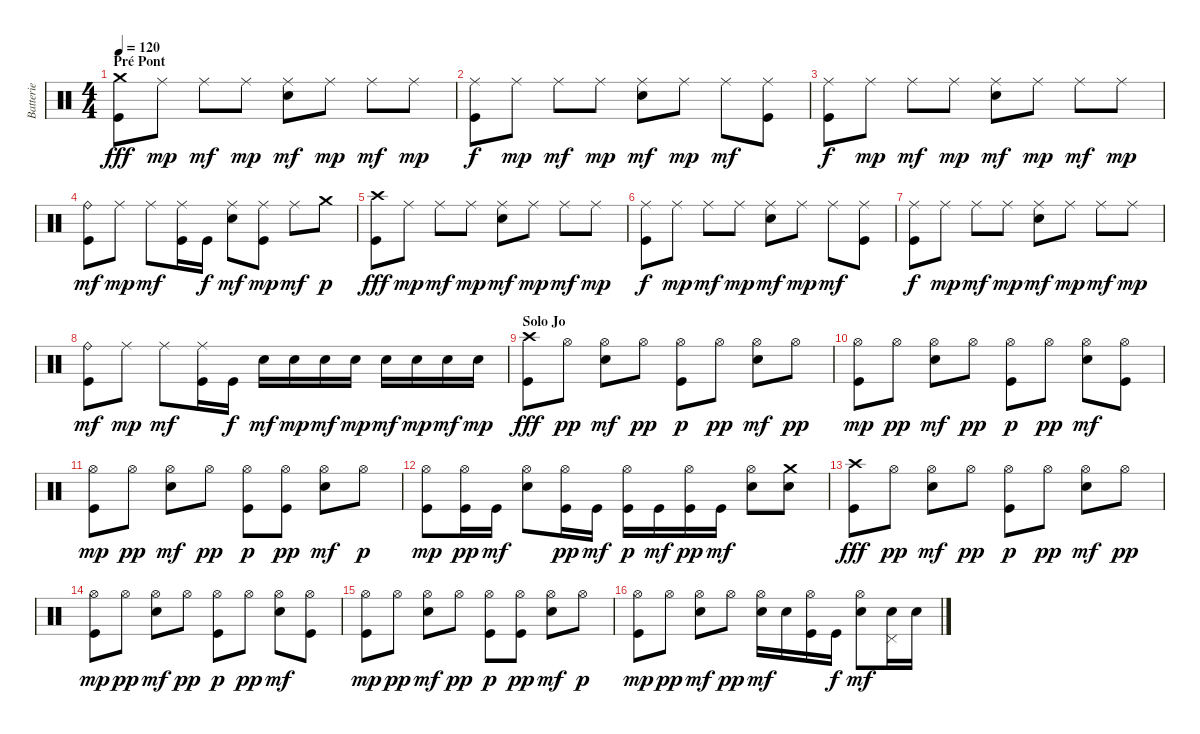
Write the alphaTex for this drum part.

\track ("Batterie" "Batterie") {instrument percussion}
\staff {score}
\articulation defaults
\ts (4 4)
\section ("" "Pré Pont")
\tempo 120
\clef neutral
\ks c
("Crash medium (hit)" "Kick (hit)").8{dy fff} "Ride (middle)".8{dy mp} "Ride (middle)".8{dy mf} "Ride (middle)".8{dy mp} ("Ride (middle)" "Electric Snare (hit)").8{dy mf} "Ride (middle)".8{dy mp} "Ride (middle)".8{dy mf} "Ride (middle)".8{dy mp} |
("Ride (middle)" "Kick (hit)").8{dy f} "Ride (middle)".8{dy mp} "Ride (middle)".8{dy mf} "Ride (middle)".8{dy mp} ("Ride (middle)" "Electric Snare (hit)").8{dy mf} "Ride (middle)".8{dy mp} "Ride (middle)".8{dy mf} ("Ride (middle)" "Kick (hit)").8 |
("Ride (middle)" "Kick (hit)").8{dy f} "Ride (middle)".8{dy mp} "Ride (middle)".8{dy mf} "Ride (middle)".8{dy mp} ("Ride (middle)" "Electric Snare (hit)").8{dy mf} "Ride (middle)".8{dy mp} "Ride (middle)".8{dy mf} "Ride (middle)".8{dy mp} |
("Ride (bell)" "Kick (hit)").8{dy mf} "Ride (middle)".8{dy mp} "Ride (middle)".8{dy mf} ("Ride (middle)" "Kick (hit)").16 "Kick (hit)".16{dy f} ("Ride (middle)" "Electric Snare (hit)").8{dy mf} ("Ride (middle)" "Kick (hit)").8{dy mp} "Ride (middle)".8{dy mf} "Crash medium (hit)".8{dy p} |
("Crash high (hit)" "Kick (hit)").8{dy fff} "Ride (middle)".8{dy mp} "Ride (middle)".8{dy mf} "Ride (middle)".8{dy mp} ("Ride (middle)" "Electric Snare (hit)").8{dy mf} "Ride (middle)".8{dy mp} "Ride (middle)".8{dy mf} "Ride (middle)".8{dy mp} |
("Ride (middle)" "Kick (hit)").8{dy f} "Ride (middle)".8{dy mp} "Ride (middle)".8{dy mf} "Ride (middle)".8{dy mp} ("Ride (middle)" "Electric Snare (hit)").8{dy mf} "Ride (middle)".8{dy mp} "Ride (middle)".8{dy mf} ("Ride (middle)" "Kick (hit)").8 |
("Ride (middle)" "Kick (hit)").8{dy f} "Ride (middle)".8{dy mp} "Ride (middle)".8{dy mf} "Ride (middle)".8{dy mp} ("Ride (middle)" "Electric Snare (hit)").8{dy mf} "Ride (middle)".8{dy mp} "Ride (middle)".8{dy mf} "Ride (middle)".8{dy mp} |
("Ride (bell)" "Kick (hit)").8{dy mf} "Ride (middle)".8{dy mp} "Ride (middle)".8{dy mf} ("Ride (middle)" "Kick (hit)").16 "Kick (hit)".16{dy f} "Electric Snare (hit)".16{dy mf} "Electric Snare (hit)".16{dy mp} "Electric Snare (hit)".16{dy mf} "Electric Snare (hit)".16{dy mp} "Electric Snare (hit)".16{dy mf} "Electric Snare (hit)".16{dy mp} "Electric Snare (hit)".16{dy mf} "Electric Snare (hit)".16{dy mp} |
\section ("" "Solo Jo")
("Crash high (hit)" "Kick (hit)").8{dy fff} "Hi-Hat (open)".8{dy pp} ("Hi-Hat (open)" "Electric Snare (hit)").8{dy mf} "Hi-Hat (open)".8{dy pp} ("Hi-Hat (open)" "Kick (hit)").8{dy p} "Hi-Hat (open)".8{dy pp} ("Hi-Hat (open)" "Electric Snare (hit)").8{dy mf} "Hi-Hat (open)".8{dy pp} |
("Hi-Hat (open)" "Kick (hit)").8{dy mp} "Hi-Hat (open)".8{dy pp} ("Hi-Hat (open)" "Electric Snare (hit)").8{dy mf} "Hi-Hat (open)".8{dy pp} ("Hi-Hat (open)" "Kick (hit)").8{dy p} "Hi-Hat (open)".8{dy pp} ("Hi-Hat (open)" "Electric Snare (hit)").8{dy mf} ("Hi-Hat (open)" "Kick (hit)").8 |
("Hi-Hat (open)" "Kick (hit)").8{dy mp} "Hi-Hat (open)".8{dy pp} ("Hi-Hat (open)" "Electric Snare (hit)").8{dy mf} "Hi-Hat (open)".8{dy pp} ("Hi-Hat (open)" "Kick (hit)").8{dy p} ("Hi-Hat (open)" "Kick (hit)").8{dy pp} ("Hi-Hat (open)" "Electric Snare (hit)").8{dy mf} "Hi-Hat (open)".8{dy p} |
("Hi-Hat (open)" "Kick (hit)").8{dy mp} ("Hi-Hat (open)" "Kick (hit)").16{dy pp} "Kick (hit)".16{dy mf} ("Hi-Hat (open)" "Electric Snare (hit)").8 ("Hi-Hat (open)" "Kick (hit)").16{dy pp} "Kick (hit)".16{dy mf} ("Hi-Hat (open)" "Kick (hit)").16{dy p} "Kick (hit)".16{dy mf} ("Hi-Hat (open)" "Kick (hit)").16{dy pp} "Kick (hit)".16{dy mf} ("Hi-Hat (open)" "Electric Snare (hit)").8 ("Crash medium (hit)" "Electric Snare (hit)").8 |
("Crash high (hit)" "Kick (hit)").8{dy fff} "Hi-Hat (open)".8{dy pp} ("Hi-Hat (open)" "Electric Snare (hit)").8{dy mf} "Hi-Hat (open)".8{dy pp} ("Hi-Hat (open)" "Kick (hit)").8{dy p} "Hi-Hat (open)".8{dy pp} ("Hi-Hat (open)" "Electric Snare (hit)").8{dy mf} "Hi-Hat (open)".8{dy pp} |
("Hi-Hat (open)" "Kick (hit)").8{dy mp} "Hi-Hat (open)".8{dy pp} ("Hi-Hat (open)" "Electric Snare (hit)").8{dy mf} "Hi-Hat (open)".8{dy pp} ("Hi-Hat (open)" "Kick (hit)").8{dy p} "Hi-Hat (open)".8{dy pp} ("Hi-Hat (open)" "Electric Snare (hit)").8{dy mf} ("Hi-Hat (open)" "Kick (hit)").8 |
("Hi-Hat (open)" "Kick (hit)").8{dy mp} "Hi-Hat (open)".8{dy pp} ("Hi-Hat (open)" "Electric Snare (hit)").8{dy mf} "Hi-Hat (open)".8{dy pp} ("Hi-Hat (open)" "Kick (hit)").8{dy p} ("Hi-Hat (open)" "Kick (hit)").8{dy pp} ("Hi-Hat (open)" "Electric Snare (hit)").8{dy mf} "Hi-Hat (open)".8{dy p} |
("Hi-Hat (open)" "Kick (hit)").8{dy mp} "Hi-Hat (open)".8{dy pp} ("Hi-Hat (open)" "Electric Snare (hit)").8{dy mf} "Hi-Hat (open)".8{dy pp} ("Hi-Hat (open)" "Electric Snare (hit)").16{dy mf} "Electric Snare (hit)".16 ("Hi-Hat (open)" "Kick (hit)").16 "Kick (hit)".16{dy f} ("Hi-Hat (open)" "Electric Snare (hit)").8{dy mf} ("Pedal Hi-Hat (hit)" "Electric Snare (hit)").16 "Electric Snare (hit)".16
